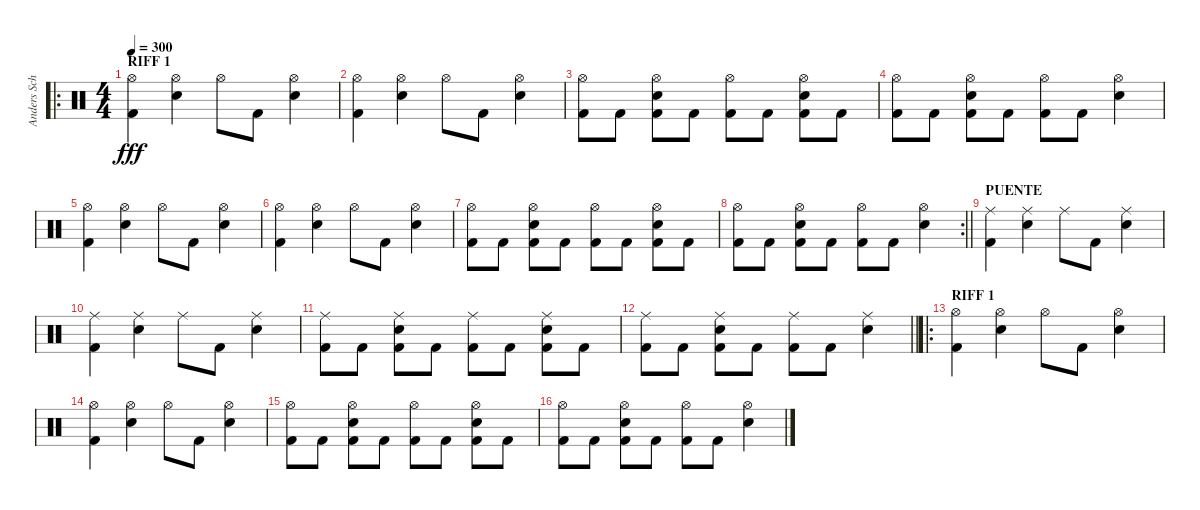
\track ("Anders Schultz" "Anders Sch") {instrument percussion}
\staff {score}
\articulation defaults
\ro
\ts (4 4)
\section ("" "RIFF 1")
\tempo 300
\clef neutral
\ks c
("Hi-Hat (open)" "Kick (hit) 2").4{dy fff} ("Hi-Hat (open)" "Snare (hit) 2").4 "Hi-Hat (open)".8 "Kick (hit) 2".8 ("Hi-Hat (open)" "Snare (hit) 2").4 |
("Hi-Hat (open)" "Kick (hit) 2").4 ("Hi-Hat (open)" "Snare (hit) 2").4 "Hi-Hat (open)".8 "Kick (hit) 2".8 ("Hi-Hat (open)" "Snare (hit) 2").4 |
("Hi-Hat (open)" "Kick (hit) 2").8 "Kick (hit) 2".8 ("Hi-Hat (open)" "Snare (hit) 2" "Kick (hit) 2").8 "Kick (hit) 2".8 ("Hi-Hat (open)" "Kick (hit) 2").8 "Kick (hit) 2".8 ("Hi-Hat (open)" "Snare (hit) 2" "Kick (hit) 2").8 "Kick (hit) 2".8 |
("Hi-Hat (open)" "Kick (hit) 2").8 "Kick (hit) 2".8 ("Hi-Hat (open)" "Snare (hit) 2" "Kick (hit) 2").8 "Kick (hit) 2".8 ("Hi-Hat (open)" "Kick (hit) 2").8 "Kick (hit) 2".8 ("Hi-Hat (open)" "Snare (hit) 2").4 |
("Hi-Hat (open)" "Kick (hit) 2").4 ("Hi-Hat (open)" "Snare (hit) 2").4 "Hi-Hat (open)".8 "Kick (hit) 2".8 ("Hi-Hat (open)" "Snare (hit) 2").4 |
("Hi-Hat (open)" "Kick (hit) 2").4 ("Hi-Hat (open)" "Snare (hit) 2").4 "Hi-Hat (open)".8 "Kick (hit) 2".8 ("Hi-Hat (open)" "Snare (hit) 2").4 |
("Hi-Hat (open)" "Kick (hit) 2").8 "Kick (hit) 2".8 ("Hi-Hat (open)" "Snare (hit) 2" "Kick (hit) 2").8 "Kick (hit) 2".8 ("Hi-Hat (open)" "Kick (hit) 2").8 "Kick (hit) 2".8 ("Hi-Hat (open)" "Snare (hit) 2" "Kick (hit) 2").8 "Kick (hit) 2".8 |
\rc 2
\barLineRight lightlight
("Hi-Hat (open)" "Kick (hit) 2").8 "Kick (hit) 2".8 ("Hi-Hat (open)" "Snare (hit) 2" "Kick (hit) 2").8 "Kick (hit) 2".8 ("Hi-Hat (open)" "Kick (hit) 2").8 "Kick (hit) 2".8 ("Hi-Hat (open)" "Snare (hit) 2").4 |
\section ("" "PUENTE")
("Ride (middle)" "Kick (hit) 2").4 ("Ride (middle)" "Snare (hit) 2").4 "Ride (middle)".8 "Kick (hit) 2".8 ("Ride (middle)" "Snare (hit) 2").4 |
("Ride (middle)" "Kick (hit) 2").4 ("Ride (middle)" "Snare (hit) 2").4 "Ride (middle)".8 "Kick (hit) 2".8 ("Ride (middle)" "Snare (hit) 2").4 |
("Ride (middle)" "Kick (hit) 2").8 "Kick (hit) 2".8 ("Ride (middle)" "Snare (hit) 2" "Kick (hit) 2").8 "Kick (hit) 2".8 ("Ride (middle)" "Kick (hit) 2").8 "Kick (hit) 2".8 ("Ride (middle)" "Snare (hit) 2" "Kick (hit) 2").8 "Kick (hit) 2".8 |
\barLineRight lightlight
("Ride (middle)" "Kick (hit) 2").8 "Kick (hit) 2".8 ("Ride (middle)" "Snare (hit) 2" "Kick (hit) 2").8 "Kick (hit) 2".8 ("Ride (middle)" "Kick (hit) 2").8 "Kick (hit) 2".8 ("Ride (middle)" "Snare (hit) 2").4 |
\ro
\section ("" "RIFF 1")
("Hi-Hat (open)" "Kick (hit) 2").4 ("Hi-Hat (open)" "Snare (hit) 2").4 "Hi-Hat (open)".8 "Kick (hit) 2".8 ("Hi-Hat (open)" "Snare (hit) 2").4 |
("Hi-Hat (open)" "Kick (hit) 2").4 ("Hi-Hat (open)" "Snare (hit) 2").4 "Hi-Hat (open)".8 "Kick (hit) 2".8 ("Hi-Hat (open)" "Snare (hit) 2").4 |
("Hi-Hat (open)" "Kick (hit) 2").8 "Kick (hit) 2".8 ("Hi-Hat (open)" "Snare (hit) 2" "Kick (hit) 2").8 "Kick (hit) 2".8 ("Hi-Hat (open)" "Kick (hit) 2").8 "Kick (hit) 2".8 ("Hi-Hat (open)" "Snare (hit) 2" "Kick (hit) 2").8 "Kick (hit) 2".8 |
("Hi-Hat (open)" "Kick (hit) 2").8 "Kick (hit) 2".8 ("Hi-Hat (open)" "Snare (hit) 2" "Kick (hit) 2").8 "Kick (hit) 2".8 ("Hi-Hat (open)" "Kick (hit) 2").8 "Kick (hit) 2".8 ("Hi-Hat (open)" "Snare (hit) 2").4
